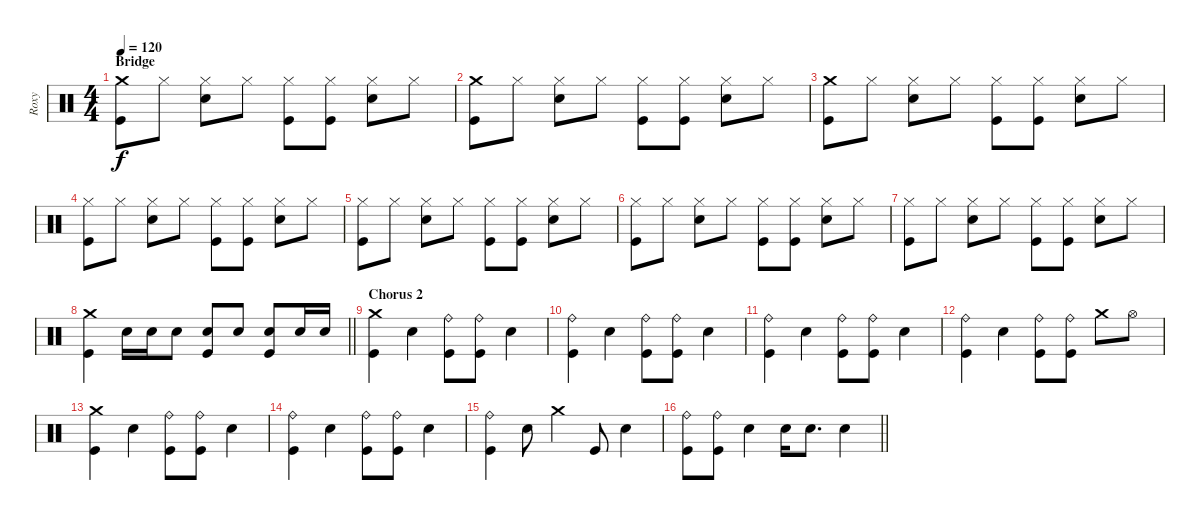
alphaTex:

\track ("Roxy" "Roxy") {instrument percussion}
\staff {score}
\articulation defaults
\ts (4 4)
\section ("" "Bridge")
\tempo 120
\clef neutral
\ks c
("Crash medium (hit)" "Kick (hit)").8{dy f} "Hi-Hat (closed)".8 ("Hi-Hat (closed)" "Electric Snare (hit)").8 "Hi-Hat (closed)".8 ("Hi-Hat (closed)" "Kick (hit)").8 ("Hi-Hat (closed)" "Kick (hit)").8 ("Hi-Hat (closed)" "Electric Snare (hit)").8 "Hi-Hat (closed)".8 |
("Crash medium (hit)" "Kick (hit)").8 "Hi-Hat (closed)".8 ("Hi-Hat (closed)" "Electric Snare (hit)").8 "Hi-Hat (closed)".8 ("Hi-Hat (closed)" "Kick (hit)").8 ("Hi-Hat (closed)" "Kick (hit)").8 ("Hi-Hat (closed)" "Electric Snare (hit)").8 "Hi-Hat (closed)".8 |
("Crash medium (hit)" "Kick (hit)").8 "Hi-Hat (closed)".8 ("Hi-Hat (closed)" "Electric Snare (hit)").8 "Hi-Hat (closed)".8 ("Hi-Hat (closed)" "Kick (hit)").8 ("Hi-Hat (closed)" "Kick (hit)").8 ("Hi-Hat (closed)" "Electric Snare (hit)").8 "Hi-Hat (closed)".8 |
("Hi-Hat (closed)" "Kick (hit)").8 "Hi-Hat (closed)".8 ("Hi-Hat (closed)" "Electric Snare (hit)").8 "Hi-Hat (closed)".8 ("Hi-Hat (closed)" "Kick (hit)").8 ("Hi-Hat (closed)" "Kick (hit)").8 ("Hi-Hat (closed)" "Electric Snare (hit)").8 "Hi-Hat (closed)".8 |
("Hi-Hat (closed)" "Kick (hit)").8 "Hi-Hat (closed)".8 ("Hi-Hat (closed)" "Electric Snare (hit)").8 "Hi-Hat (closed)".8 ("Hi-Hat (closed)" "Kick (hit)").8 ("Hi-Hat (closed)" "Kick (hit)").8 ("Hi-Hat (closed)" "Electric Snare (hit)").8 "Hi-Hat (closed)".8 |
("Hi-Hat (closed)" "Kick (hit)").8 "Hi-Hat (closed)".8 ("Hi-Hat (closed)" "Electric Snare (hit)").8 "Hi-Hat (closed)".8 ("Hi-Hat (closed)" "Kick (hit)").8 ("Hi-Hat (closed)" "Kick (hit)").8 ("Hi-Hat (closed)" "Electric Snare (hit)").8 "Hi-Hat (closed)".8 |
("Hi-Hat (closed)" "Kick (hit)").8 "Hi-Hat (closed)".8 ("Hi-Hat (closed)" "Electric Snare (hit)").8 "Hi-Hat (closed)".8 ("Hi-Hat (closed)" "Kick (hit)").8 ("Hi-Hat (closed)" "Kick (hit)").8 ("Hi-Hat (closed)" "Electric Snare (hit)").8 "Hi-Hat (closed)".8 |
\barLineRight lightlight
("Crash medium (hit)" "Kick (hit)").4 "Electric Snare (hit)".16 "Electric Snare (hit)".16 "Electric Snare (hit)".8 ("Electric Snare (hit)" "Kick (hit)").8 "Electric Snare (hit)".8 ("Electric Snare (hit)" "Kick (hit)").8 "Electric Snare (hit)".16 "Electric Snare (hit)".16 |
\section ("" "Chorus 2")
("Crash medium (hit)" "Kick (hit)").4 "Electric Snare (hit)".4 ("Ride (bell)" "Kick (hit)").8 ("Ride (bell)" "Kick (hit)").8 "Electric Snare (hit)".4 |
("Ride (bell)" "Kick (hit)").4 "Electric Snare (hit)".4 ("Ride (bell)" "Kick (hit)").8 ("Ride (bell)" "Kick (hit)").8 "Electric Snare (hit)".4 |
("Ride (bell)" "Kick (hit)").4 "Electric Snare (hit)".4 ("Ride (bell)" "Kick (hit)").8 ("Ride (bell)" "Kick (hit)").8 "Electric Snare (hit)".4 |
("Ride (bell)" "Kick (hit)").4 "Electric Snare (hit)".4 ("Ride (bell)" "Kick (hit)").8 ("Ride (bell)" "Kick (hit)").8 "Crash medium (hit)".8 "Hi-Hat (open)".8 |
("Crash medium (hit)" "Kick (hit)").4 "Electric Snare (hit)".4 ("Ride (bell)" "Kick (hit)").8 ("Ride (bell)" "Kick (hit)").8 "Electric Snare (hit)".4 |
("Ride (bell)" "Kick (hit)").4 "Electric Snare (hit)".4 ("Ride (bell)" "Kick (hit)").8 ("Ride (bell)" "Kick (hit)").8 "Electric Snare (hit)".4 |
("Ride (bell)" "Kick (hit)").4 "Electric Snare (hit)".8 "Crash medium (hit)".4 "Kick (hit)".8 "Electric Snare (hit)".4 |
\barLineRight lightlight
("Ride (bell)" "Kick (hit)").8 ("Ride (bell)" "Kick (hit)").8 "Electric Snare (hit)".4 "Electric Snare (hit)".16 "Electric Snare (hit)".8{d} "Electric Snare (hit)".4
